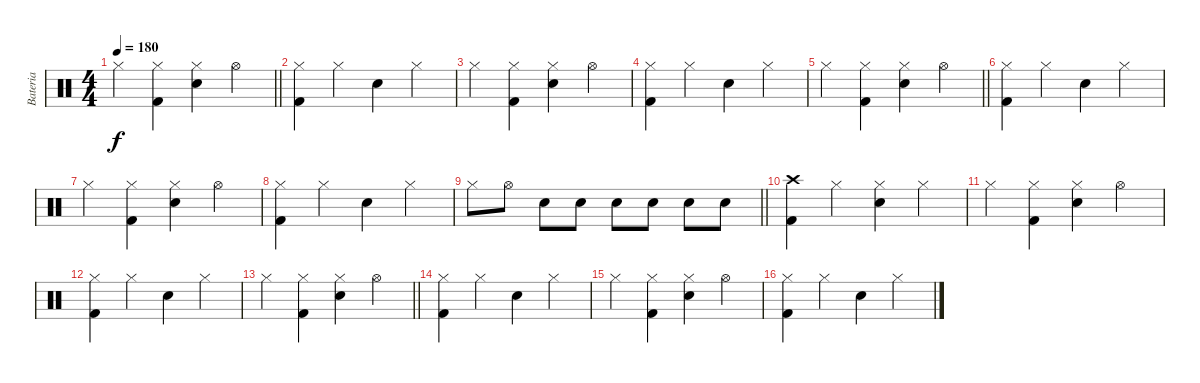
\track ("Bateria" "Bateria") {instrument percussion}
\staff {score}
\articulation defaults
\ts (4 4)
\tempo 180
\clef neutral
\barLineRight lightlight
\ks c "Hi-Hat (closed)".4{dy f}
("Hi-Hat (closed)" "Kick (hit) 2").4 ("Hi-Hat (closed)" "Electric Snare (hit)").4 "Hi-Hat (open)".4 |
("Hi-Hat (closed)" "Kick (hit) 2").4 "Hi-Hat (closed)".4 "Electric Snare (hit)".4 "Hi-Hat (closed)".4 |
"Hi-Hat (closed)".4 ("Hi-Hat (closed)" "Kick (hit) 2").4 ("Hi-Hat (closed)" "Electric Snare (hit)").4 "Hi-Hat (open)".4 |
("Hi-Hat (closed)" "Kick (hit) 2").4 "Hi-Hat (closed)".4 "Electric Snare (hit)".4 "Hi-Hat (closed)".4 |
\barLineRight lightlight "Hi-Hat (closed)".4
("Hi-Hat (closed)" "Kick (hit) 2").4 ("Hi-Hat (closed)" "Electric Snare (hit)").4 "Hi-Hat (open)".4 |
("Hi-Hat (closed)" "Kick (hit) 2").4 "Hi-Hat (closed)".4 "Electric Snare (hit)".4 "Hi-Hat (closed)".4 |
"Hi-Hat (closed)".4 ("Hi-Hat (closed)" "Kick (hit) 2").4 ("Hi-Hat (closed)" "Electric Snare (hit)").4 "Hi-Hat (open)".4 |
("Hi-Hat (closed)" "Kick (hit) 2").4 "Hi-Hat (closed)".4 "Electric Snare (hit)".4 "Hi-Hat (closed)".4 |
\barLineRight lightlight "Hi-Hat (closed)".8 "Hi-Hat (open)".8 "Electric Snare (hit)".8 "Electric Snare (hit)".8 "Electric Snare (hit)".8 "Electric Snare (hit)".8 "Electric Snare (hit)".8 "Electric Snare (hit)".8
|
("Crash high (hit)" "Kick (hit) 2").4 "Hi-Hat (closed)".4 ("Electric Snare (hit)" "Hi-Hat (closed)").4 "Hi-Hat (closed)".4 |
"Hi-Hat (closed)".4 ("Hi-Hat (closed)" "Kick (hit) 2").4 ("Hi-Hat (closed)" "Electric Snare (hit)").4 "Hi-Hat (open)".4 |
("Hi-Hat (closed)" "Kick (hit) 2").4 "Hi-Hat (closed)".4 "Electric Snare (hit)".4 "Hi-Hat (closed)".4 |
\barLineRight lightlight "Hi-Hat (closed)".4
("Hi-Hat (closed)" "Kick (hit) 2").4 ("Hi-Hat (closed)" "Electric Snare (hit)").4 "Hi-Hat (open)".4 |
("Hi-Hat (closed)" "Kick (hit) 2").4 "Hi-Hat (closed)".4 "Electric Snare (hit)".4 "Hi-Hat (closed)".4 |
"Hi-Hat (closed)".4 ("Hi-Hat (closed)" "Kick (hit) 2").4 ("Hi-Hat (closed)" "Electric Snare (hit)").4 "Hi-Hat (open)".4 |
("Hi-Hat (closed)" "Kick (hit) 2").4 "Hi-Hat (closed)".4 "Electric Snare (hit)".4 "Hi-Hat (closed)".4
